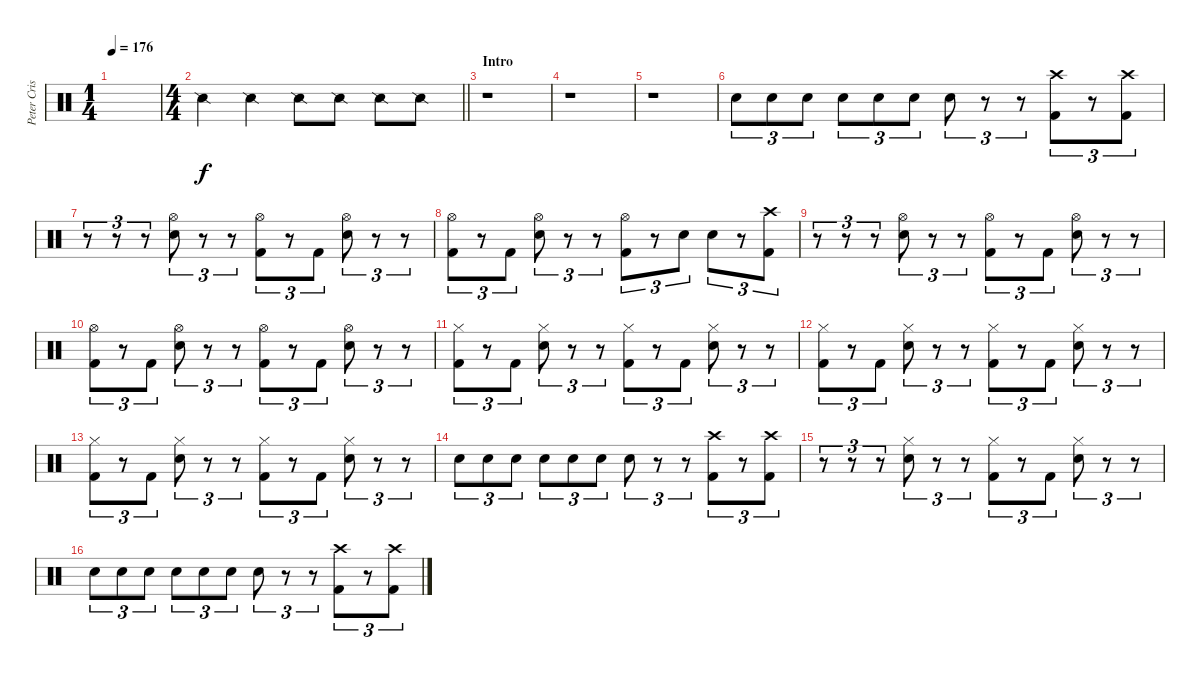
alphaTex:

\track ("Peter Criss" "Peter Cris") {instrument percussion}
\staff {score}
\articulation defaults
\ts (1 4)
\tempo 176
\clef neutral
\ks c
|
\ts (4 4)
\barLineRight lightlight "Snare (side stick) 2".4 "Snare (side stick) 2".4 "Snare (side stick) 2".8 "Snare (side stick) 2".8 "Snare (side stick) 2".8 "Snare (side stick) 2".8
|
\section ("" "Intro")
r.1 |
r.1 |
r.1 |
"Electric Snare (hit)".8{tu (3 2)} "Electric Snare (hit)".8{tu (3 2)} "Electric Snare (hit)".8{tu (3 2)} "Electric Snare (hit)".8{tu (3 2)} "Electric Snare (hit)".8{tu (3 2)} "Electric Snare (hit)".8{tu (3 2)} "Electric Snare (hit)".8{tu (3 2)} r.8{tu (3 2)} r.8{tu (3 2)} ("Crash high (hit)" "Kick (hit) 2").8{tu (3 2)} r.8{tu (3 2)} ("Crash high (hit)" "Kick (hit) 2").8{tu (3 2)} |
r.8{tu (3 2)} r.8{tu (3 2)} r.8{tu (3 2)} ("Hi-Hat (open)" "Electric Snare (hit)").8{tu (3 2)} r.8{tu (3 2)} r.8{tu (3 2)} ("Hi-Hat (open)" "Kick (hit) 2").8{tu (3 2)} r.8{tu (3 2)} "Kick (hit) 2".8{tu (3 2)} ("Hi-Hat (open)" "Electric Snare (hit)").8{tu (3 2)} r.8{tu (3 2)} r.8{tu (3 2)} |
("Hi-Hat (open)" "Kick (hit) 2").8{tu (3 2)} r.8{tu (3 2)} "Kick (hit) 2".8{tu (3 2)} ("Hi-Hat (open)" "Electric Snare (hit)").8{tu (3 2)} r.8{tu (3 2)} r.8{tu (3 2)} ("Hi-Hat (open)" "Kick (hit) 2").8{tu (3 2)} r.8{tu (3 2)} "Electric Snare (hit)".8{tu (3 2)} "Electric Snare (hit)".8{tu (3 2)} r.8{tu (3 2)} ("Crash high (hit)" "Kick (hit) 2").8{tu (3 2)} |
r.8{tu (3 2)} r.8{tu (3 2)} r.8{tu (3 2)} ("Hi-Hat (open)" "Electric Snare (hit)").8{tu (3 2)} r.8{tu (3 2)} r.8{tu (3 2)} ("Hi-Hat (open)" "Kick (hit) 2").8{tu (3 2)} r.8{tu (3 2)} "Kick (hit) 2".8{tu (3 2)} ("Hi-Hat (open)" "Electric Snare (hit)").8{tu (3 2)} r.8{tu (3 2)} r.8{tu (3 2)} |
("Hi-Hat (open)" "Kick (hit) 2").8{tu (3 2)} r.8{tu (3 2)} "Kick (hit) 2".8{tu (3 2)} ("Hi-Hat (open)" "Electric Snare (hit)").8{tu (3 2)} r.8{tu (3 2)} r.8{tu (3 2)} ("Hi-Hat (open)" "Kick (hit) 2").8{tu (3 2)} r.8{tu (3 2)} "Kick (hit) 2".8{tu (3 2)} ("Hi-Hat (open)" "Electric Snare (hit)").8{tu (3 2)} r.8{tu (3 2)} r.8{tu (3 2)} |
("Hi-Hat (closed)" "Kick (hit) 2").8{tu (3 2)} r.8{tu (3 2)} "Kick (hit) 2".8{tu (3 2)} ("Hi-Hat (closed)" "Electric Snare (hit)").8{tu (3 2)} r.8{tu (3 2)} r.8{tu (3 2)} ("Hi-Hat (closed)" "Kick (hit) 2").8{tu (3 2)} r.8{tu (3 2)} "Kick (hit) 2".8{tu (3 2)} ("Hi-Hat (closed)" "Electric Snare (hit)").8{tu (3 2)} r.8{tu (3 2)} r.8{tu (3 2)} |
("Hi-Hat (closed)" "Kick (hit) 2").8{tu (3 2)} r.8{tu (3 2)} "Kick (hit) 2".8{tu (3 2)} ("Hi-Hat (closed)" "Electric Snare (hit)").8{tu (3 2)} r.8{tu (3 2)} r.8{tu (3 2)} ("Hi-Hat (closed)" "Kick (hit) 2").8{tu (3 2)} r.8{tu (3 2)} "Kick (hit) 2".8{tu (3 2)} ("Hi-Hat (closed)" "Electric Snare (hit)").8{tu (3 2)} r.8{tu (3 2)} r.8{tu (3 2)} |
("Hi-Hat (closed)" "Kick (hit) 2").8{tu (3 2)} r.8{tu (3 2)} "Kick (hit) 2".8{tu (3 2)} ("Hi-Hat (closed)" "Electric Snare (hit)").8{tu (3 2)} r.8{tu (3 2)} r.8{tu (3 2)} ("Hi-Hat (closed)" "Kick (hit) 2").8{tu (3 2)} r.8{tu (3 2)} "Kick (hit) 2".8{tu (3 2)} ("Hi-Hat (closed)" "Electric Snare (hit)").8{tu (3 2)} r.8{tu (3 2)} r.8{tu (3 2)} |
"Electric Snare (hit)".8{tu (3 2)} "Electric Snare (hit)".8{tu (3 2)} "Electric Snare (hit)".8{tu (3 2)} "Electric Snare (hit)".8{tu (3 2)} "Electric Snare (hit)".8{tu (3 2)} "Electric Snare (hit)".8{tu (3 2)} "Electric Snare (hit)".8{tu (3 2)} r.8{tu (3 2)} r.8{tu (3 2)} ("Crash high (hit)" "Kick (hit) 2").8{tu (3 2)} r.8{tu (3 2)} ("Crash high (hit)" "Kick (hit) 2").8{tu (3 2)} |
r.8{tu (3 2)} r.8{tu (3 2)} r.8{tu (3 2)} ("Hi-Hat (closed)" "Electric Snare (hit)").8{tu (3 2)} r.8{tu (3 2)} r.8{tu (3 2)} ("Hi-Hat (closed)" "Kick (hit) 2").8{tu (3 2)} r.8{tu (3 2)} "Kick (hit) 2".8{tu (3 2)} ("Hi-Hat (closed)" "Electric Snare (hit)").8{tu (3 2)} r.8{tu (3 2)} r.8{tu (3 2)} |
"Electric Snare (hit)".8{tu (3 2)} "Electric Snare (hit)".8{tu (3 2)} "Electric Snare (hit)".8{tu (3 2)} "Electric Snare (hit)".8{tu (3 2)} "Electric Snare (hit)".8{tu (3 2)} "Electric Snare (hit)".8{tu (3 2)} "Electric Snare (hit)".8{tu (3 2)} r.8{tu (3 2)} r.8{tu (3 2)} ("Crash high (hit)" "Kick (hit) 2").8{tu (3 2)} r.8{tu (3 2)} ("Crash high (hit)" "Kick (hit) 2").8{tu (3 2)}
